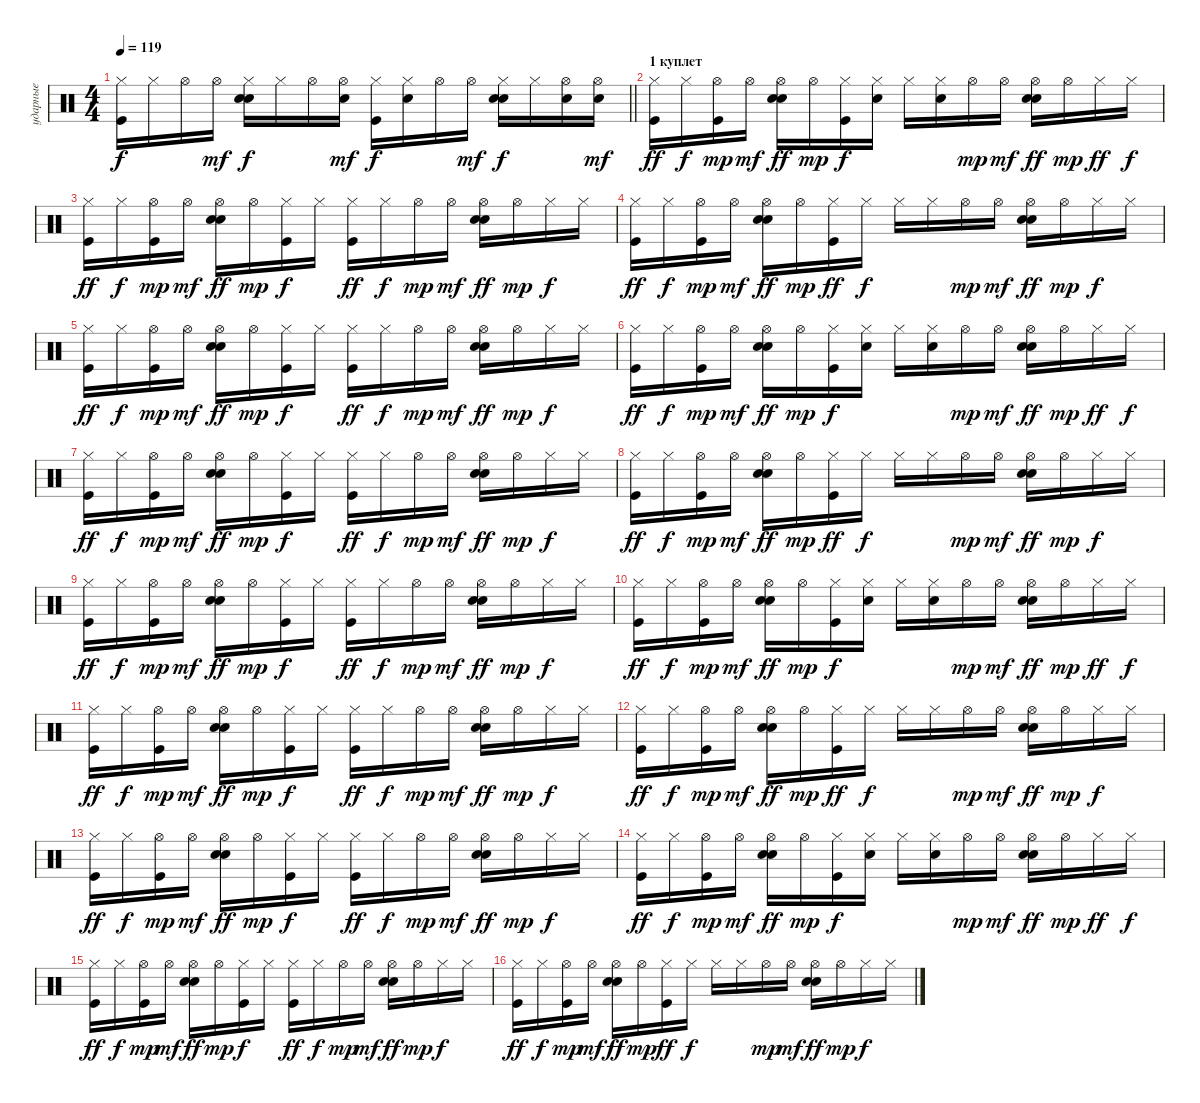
\track ("ударные" "ударные") {instrument percussion}
\staff {score}
\articulation defaults
\ts (4 4)
\tempo 119
\clef neutral
\barLineRight lightlight
\ks c
("Kick (hit)" "Hi-Hat (closed)").16{dy f} "Hi-Hat (closed)".16 "Hi-Hat (open)".16 "Hi-Hat (open)".16{dy mf} ("Electric Snare (hit)" "Hi-Hat (closed)" "Hand Clap (hit)").16{dy f} "Hi-Hat (closed)".16 "Hi-Hat (open)".16 ("Hi-Hat (open)" "Electric Snare (hit)").16{dy mf} ("Hi-Hat (closed)" "Kick (hit)").16{dy f} ("Electric Snare (hit)" "Hi-Hat (closed)").16 "Hi-Hat (open)".16 "Hi-Hat (open)".16{dy mf} ("Electric Snare (hit)" "Hi-Hat (closed)" "Hand Clap (hit)").16{dy f} "Hi-Hat (closed)".16 ("Electric Snare (hit)" "Hi-Hat (open)").16 ("Electric Snare (hit)" "Hi-Hat (open)").16{dy mf} |
\section ("" "1 куплет")
("Kick (hit)" "Hi-Hat (closed)").16{dy ff} "Hi-Hat (closed)".16{dy f} ("Kick (hit)" "Hi-Hat (open)").16{dy mp} "Hi-Hat (open)".16{dy mf} ("Electric Snare (hit)" "Hi-Hat (open)" "Hand Clap (hit)").16{dy ff} "Hi-Hat (open)".16{dy mp} ("Kick (hit)" "Hi-Hat (closed)").16{dy f} ("Electric Snare (hit)" "Hi-Hat (closed)").16 "Hi-Hat (closed)".16 ("Electric Snare (hit)" "Hi-Hat (closed)").16 "Hi-Hat (open)".16{dy mp} "Hi-Hat (open)".16{dy mf} ("Hi-Hat (open)" "Electric Snare (hit)" "Hand Clap (hit)").16{dy ff} "Hi-Hat (open)".16{dy mp} "Hi-Hat (closed)".16{dy ff} "Hi-Hat (closed)".16{dy f} |
("Kick (hit)" "Hi-Hat (closed)").16{dy ff} "Hi-Hat (closed)".16{dy f} ("Kick (hit)" "Hi-Hat (open)").16{dy mp} "Hi-Hat (open)".16{dy mf} ("Electric Snare (hit)" "Hi-Hat (open)" "Hand Clap (hit)").16{dy ff} "Hi-Hat (open)".16{dy mp} ("Kick (hit)" "Hi-Hat (closed)").16{dy f} "Hi-Hat (closed)".16 ("Kick (hit)" "Hi-Hat (closed)").16{dy ff} "Hi-Hat (closed)".16{dy f} "Hi-Hat (open)".16{dy mp} "Hi-Hat (open)".16{dy mf} ("Electric Snare (hit)" "Hi-Hat (open)" "Hand Clap (hit)").16{dy ff} "Hi-Hat (open)".16{dy mp} "Hi-Hat (closed)".16{dy f} "Hi-Hat (closed)".16 |
("Kick (hit)" "Hi-Hat (closed)").16{dy ff} "Hi-Hat (closed)".16{dy f} ("Kick (hit)" "Hi-Hat (open)").16{dy mp} "Hi-Hat (open)".16{dy mf} ("Electric Snare (hit)" "Hi-Hat (open)" "Hand Clap (hit)").16{dy ff} "Hi-Hat (open)".16{dy mp} ("Kick (hit)" "Hi-Hat (closed)").16{dy ff} "Hi-Hat (closed)".16{dy f} "Hi-Hat (closed)".16 "Hi-Hat (closed)".16 "Hi-Hat (open)".16{dy mp} "Hi-Hat (open)".16{dy mf} ("Electric Snare (hit)" "Hi-Hat (open)" "Hand Clap (hit)").16{dy ff} "Hi-Hat (open)".16{dy mp} "Hi-Hat (closed)".16{dy f} "Hi-Hat (closed)".16 |
("Kick (hit)" "Hi-Hat (closed)").16{dy ff} "Hi-Hat (closed)".16{dy f} ("Kick (hit)" "Hi-Hat (open)").16{dy mp} "Hi-Hat (open)".16{dy mf} ("Electric Snare (hit)" "Hi-Hat (open)" "Hand Clap (hit)").16{dy ff} "Hi-Hat (open)".16{dy mp} ("Kick (hit)" "Hi-Hat (closed)").16{dy f} "Hi-Hat (closed)".16 ("Kick (hit)" "Hi-Hat (closed)").16{dy ff} "Hi-Hat (closed)".16{dy f} "Hi-Hat (open)".16{dy mp} "Hi-Hat (open)".16{dy mf} ("Electric Snare (hit)" "Hi-Hat (open)" "Hand Clap (hit)").16{dy ff} "Hi-Hat (open)".16{dy mp} "Hi-Hat (closed)".16{dy f} "Hi-Hat (closed)".16 |
("Kick (hit)" "Hi-Hat (closed)").16{dy ff} "Hi-Hat (closed)".16{dy f} ("Kick (hit)" "Hi-Hat (open)").16{dy mp} "Hi-Hat (open)".16{dy mf} ("Electric Snare (hit)" "Hi-Hat (open)" "Hand Clap (hit)").16{dy ff} "Hi-Hat (open)".16{dy mp} ("Kick (hit)" "Hi-Hat (closed)").16{dy f} ("Electric Snare (hit)" "Hi-Hat (closed)").16 "Hi-Hat (closed)".16 ("Electric Snare (hit)" "Hi-Hat (closed)").16 "Hi-Hat (open)".16{dy mp} "Hi-Hat (open)".16{dy mf} ("Hi-Hat (open)" "Electric Snare (hit)" "Hand Clap (hit)").16{dy ff} "Hi-Hat (open)".16{dy mp} "Hi-Hat (closed)".16{dy ff} "Hi-Hat (closed)".16{dy f} |
("Kick (hit)" "Hi-Hat (closed)").16{dy ff} "Hi-Hat (closed)".16{dy f} ("Kick (hit)" "Hi-Hat (open)").16{dy mp} "Hi-Hat (open)".16{dy mf} ("Electric Snare (hit)" "Hi-Hat (open)" "Hand Clap (hit)").16{dy ff} "Hi-Hat (open)".16{dy mp} ("Kick (hit)" "Hi-Hat (closed)").16{dy f} "Hi-Hat (closed)".16 ("Kick (hit)" "Hi-Hat (closed)").16{dy ff} "Hi-Hat (closed)".16{dy f} "Hi-Hat (open)".16{dy mp} "Hi-Hat (open)".16{dy mf} ("Electric Snare (hit)" "Hi-Hat (open)" "Hand Clap (hit)").16{dy ff} "Hi-Hat (open)".16{dy mp} "Hi-Hat (closed)".16{dy f} "Hi-Hat (closed)".16 |
("Kick (hit)" "Hi-Hat (closed)").16{dy ff} "Hi-Hat (closed)".16{dy f} ("Kick (hit)" "Hi-Hat (open)").16{dy mp} "Hi-Hat (open)".16{dy mf} ("Electric Snare (hit)" "Hi-Hat (open)" "Hand Clap (hit)").16{dy ff} "Hi-Hat (open)".16{dy mp} ("Kick (hit)" "Hi-Hat (closed)").16{dy ff} "Hi-Hat (closed)".16{dy f} "Hi-Hat (closed)".16 "Hi-Hat (closed)".16 "Hi-Hat (open)".16{dy mp} "Hi-Hat (open)".16{dy mf} ("Electric Snare (hit)" "Hi-Hat (open)" "Hand Clap (hit)").16{dy ff} "Hi-Hat (open)".16{dy mp} "Hi-Hat (closed)".16{dy f} "Hi-Hat (closed)".16 |
("Kick (hit)" "Hi-Hat (closed)").16{dy ff} "Hi-Hat (closed)".16{dy f} ("Kick (hit)" "Hi-Hat (open)").16{dy mp} "Hi-Hat (open)".16{dy mf} ("Electric Snare (hit)" "Hi-Hat (open)" "Hand Clap (hit)").16{dy ff} "Hi-Hat (open)".16{dy mp} ("Kick (hit)" "Hi-Hat (closed)").16{dy f} "Hi-Hat (closed)".16 ("Kick (hit)" "Hi-Hat (closed)").16{dy ff} "Hi-Hat (closed)".16{dy f} "Hi-Hat (open)".16{dy mp} "Hi-Hat (open)".16{dy mf} ("Electric Snare (hit)" "Hi-Hat (open)" "Hand Clap (hit)").16{dy ff} "Hi-Hat (open)".16{dy mp} "Hi-Hat (closed)".16{dy f} "Hi-Hat (closed)".16 |
("Kick (hit)" "Hi-Hat (closed)").16{dy ff} "Hi-Hat (closed)".16{dy f} ("Kick (hit)" "Hi-Hat (open)").16{dy mp} "Hi-Hat (open)".16{dy mf} ("Electric Snare (hit)" "Hi-Hat (open)" "Hand Clap (hit)").16{dy ff} "Hi-Hat (open)".16{dy mp} ("Kick (hit)" "Hi-Hat (closed)").16{dy f} ("Electric Snare (hit)" "Hi-Hat (closed)").16 "Hi-Hat (closed)".16 ("Electric Snare (hit)" "Hi-Hat (closed)").16 "Hi-Hat (open)".16{dy mp} "Hi-Hat (open)".16{dy mf} ("Hi-Hat (open)" "Electric Snare (hit)" "Hand Clap (hit)").16{dy ff} "Hi-Hat (open)".16{dy mp} "Hi-Hat (closed)".16{dy ff} "Hi-Hat (closed)".16{dy f} |
("Kick (hit)" "Hi-Hat (closed)").16{dy ff} "Hi-Hat (closed)".16{dy f} ("Kick (hit)" "Hi-Hat (open)").16{dy mp} "Hi-Hat (open)".16{dy mf} ("Electric Snare (hit)" "Hi-Hat (open)" "Hand Clap (hit)").16{dy ff} "Hi-Hat (open)".16{dy mp} ("Kick (hit)" "Hi-Hat (closed)").16{dy f} "Hi-Hat (closed)".16 ("Kick (hit)" "Hi-Hat (closed)").16{dy ff} "Hi-Hat (closed)".16{dy f} "Hi-Hat (open)".16{dy mp} "Hi-Hat (open)".16{dy mf} ("Electric Snare (hit)" "Hi-Hat (open)" "Hand Clap (hit)").16{dy ff} "Hi-Hat (open)".16{dy mp} "Hi-Hat (closed)".16{dy f} "Hi-Hat (closed)".16 |
("Kick (hit)" "Hi-Hat (closed)").16{dy ff} "Hi-Hat (closed)".16{dy f} ("Kick (hit)" "Hi-Hat (open)").16{dy mp} "Hi-Hat (open)".16{dy mf} ("Electric Snare (hit)" "Hi-Hat (open)" "Hand Clap (hit)").16{dy ff} "Hi-Hat (open)".16{dy mp} ("Kick (hit)" "Hi-Hat (closed)").16{dy ff} "Hi-Hat (closed)".16{dy f} "Hi-Hat (closed)".16 "Hi-Hat (closed)".16 "Hi-Hat (open)".16{dy mp} "Hi-Hat (open)".16{dy mf} ("Electric Snare (hit)" "Hi-Hat (open)" "Hand Clap (hit)").16{dy ff} "Hi-Hat (open)".16{dy mp} "Hi-Hat (closed)".16{dy f} "Hi-Hat (closed)".16 |
("Kick (hit)" "Hi-Hat (closed)").16{dy ff} "Hi-Hat (closed)".16{dy f} ("Kick (hit)" "Hi-Hat (open)").16{dy mp} "Hi-Hat (open)".16{dy mf} ("Electric Snare (hit)" "Hi-Hat (open)" "Hand Clap (hit)").16{dy ff} "Hi-Hat (open)".16{dy mp} ("Kick (hit)" "Hi-Hat (closed)").16{dy f} "Hi-Hat (closed)".16 ("Kick (hit)" "Hi-Hat (closed)").16{dy ff} "Hi-Hat (closed)".16{dy f} "Hi-Hat (open)".16{dy mp} "Hi-Hat (open)".16{dy mf} ("Electric Snare (hit)" "Hi-Hat (open)" "Hand Clap (hit)").16{dy ff} "Hi-Hat (open)".16{dy mp} "Hi-Hat (closed)".16{dy f} "Hi-Hat (closed)".16 |
("Kick (hit)" "Hi-Hat (closed)").16{dy ff} "Hi-Hat (closed)".16{dy f} ("Kick (hit)" "Hi-Hat (open)").16{dy mp} "Hi-Hat (open)".16{dy mf} ("Electric Snare (hit)" "Hi-Hat (open)" "Hand Clap (hit)").16{dy ff} "Hi-Hat (open)".16{dy mp} ("Kick (hit)" "Hi-Hat (closed)").16{dy f} ("Electric Snare (hit)" "Hi-Hat (closed)").16 "Hi-Hat (closed)".16 ("Electric Snare (hit)" "Hi-Hat (closed)").16 "Hi-Hat (open)".16{dy mp} "Hi-Hat (open)".16{dy mf} ("Hi-Hat (open)" "Electric Snare (hit)" "Hand Clap (hit)").16{dy ff} "Hi-Hat (open)".16{dy mp} "Hi-Hat (closed)".16{dy ff} "Hi-Hat (closed)".16{dy f} |
("Kick (hit)" "Hi-Hat (closed)").16{dy ff} "Hi-Hat (closed)".16{dy f} ("Kick (hit)" "Hi-Hat (open)").16{dy mp} "Hi-Hat (open)".16{dy mf} ("Electric Snare (hit)" "Hi-Hat (open)" "Hand Clap (hit)").16{dy ff} "Hi-Hat (open)".16{dy mp} ("Kick (hit)" "Hi-Hat (closed)").16{dy f} "Hi-Hat (closed)".16 ("Kick (hit)" "Hi-Hat (closed)").16{dy ff} "Hi-Hat (closed)".16{dy f} "Hi-Hat (open)".16{dy mp} "Hi-Hat (open)".16{dy mf} ("Electric Snare (hit)" "Hi-Hat (open)" "Hand Clap (hit)").16{dy ff} "Hi-Hat (open)".16{dy mp} "Hi-Hat (closed)".16{dy f} "Hi-Hat (closed)".16 |
("Kick (hit)" "Hi-Hat (closed)").16{dy ff} "Hi-Hat (closed)".16{dy f} ("Kick (hit)" "Hi-Hat (open)").16{dy mp} "Hi-Hat (open)".16{dy mf} ("Electric Snare (hit)" "Hi-Hat (open)" "Hand Clap (hit)").16{dy ff} "Hi-Hat (open)".16{dy mp} ("Kick (hit)" "Hi-Hat (closed)").16{dy ff} "Hi-Hat (closed)".16{dy f} "Hi-Hat (closed)".16 "Hi-Hat (closed)".16 "Hi-Hat (open)".16{dy mp} "Hi-Hat (open)".16{dy mf} ("Electric Snare (hit)" "Hi-Hat (open)" "Hand Clap (hit)").16{dy ff} "Hi-Hat (open)".16{dy mp} "Hi-Hat (closed)".16{dy f} "Hi-Hat (closed)".16
